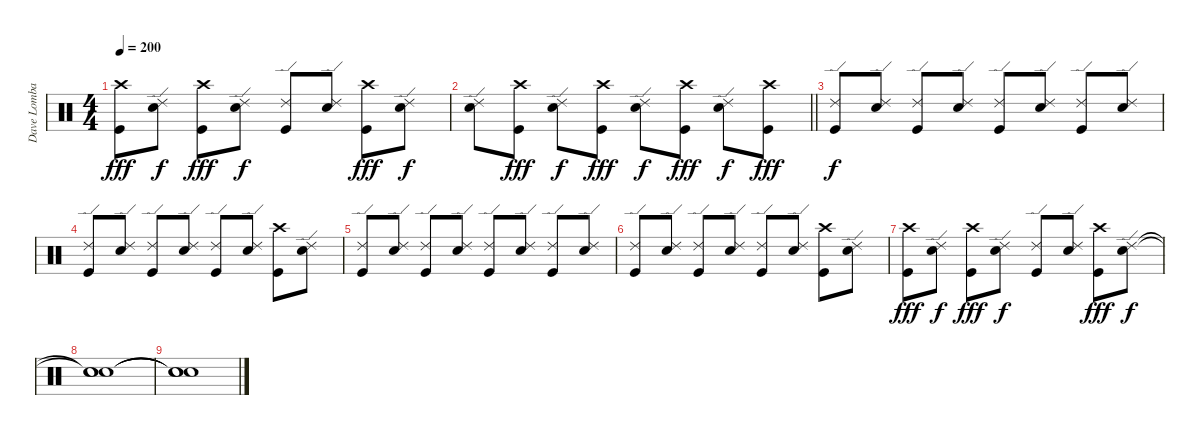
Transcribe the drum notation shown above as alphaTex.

\track ("Dave Lombardo:" "Dave Lomba") {instrument percussion}
\staff {score}
\articulation defaults
\ts (4 4)
\tempo 200
\clef neutral
\ks c
("Crash high (hit)" "Kick (hit)").8{dy fff} ("Ride (edge) 2" "Snare (hit) 2").8{dy f} ("Crash high (hit)" "Kick (hit)").8{dy fff} ("Ride (edge) 2" "Snare (hit) 2").8{dy f} ("Ride (edge) 2" "Kick (hit)").8 ("Ride (edge) 2" "Snare (hit) 2").8 ("Crash high (hit)" "Kick (hit)").8{dy fff} ("Ride (edge) 2" "Snare (hit) 2").8{dy f} |
\barLineRight lightlight
("Ride (edge) 2" "Snare (hit) 2").8 ("Crash high (hit)" "Kick (hit)").8{dy fff} ("Ride (edge) 2" "Snare (hit) 2").8{dy f} ("Crash high (hit)" "Kick (hit)").8{dy fff} ("Ride (edge) 2" "Snare (hit) 2").8{dy f} ("Crash high (hit)" "Kick (hit)").8{dy fff} ("Ride (edge) 2" "Snare (hit) 2").8{dy f} ("Crash high (hit)" "Kick (hit)").8{dy fff} |
\section ("" "")
("Ride (edge) 2" "Kick (hit)").8{dy f} ("Ride (edge) 2" "Snare (hit) 2").8 ("Ride (edge) 2" "Kick (hit)").8 ("Ride (edge) 2" "Snare (hit) 2").8 ("Ride (edge) 2" "Kick (hit)").8 ("Ride (edge) 2" "Snare (hit) 2").8 ("Ride (edge) 2" "Kick (hit)").8 ("Ride (edge) 2" "Snare (hit) 2").8 |
("Ride (edge) 2" "Kick (hit)").8 ("Ride (edge) 2" "Snare (hit) 2").8 ("Ride (edge) 2" "Kick (hit)").8 ("Ride (edge) 2" "Snare (hit) 2").8 ("Ride (edge) 2" "Kick (hit)").8 ("Ride (edge) 2" "Snare (hit) 2").8 ("Crash high (hit)" "Kick (hit)").8 ("Ride (edge) 2" "Snare (hit) 2").8 |
("Ride (edge) 2" "Kick (hit)").8 ("Ride (edge) 2" "Snare (hit) 2").8 ("Ride (edge) 2" "Kick (hit)").8 ("Ride (edge) 2" "Snare (hit) 2").8 ("Ride (edge) 2" "Kick (hit)").8 ("Ride (edge) 2" "Snare (hit) 2").8 ("Ride (edge) 2" "Kick (hit)").8 ("Ride (edge) 2" "Snare (hit) 2").8 |
("Ride (edge) 2" "Kick (hit)").8 ("Ride (edge) 2" "Snare (hit) 2").8 ("Ride (edge) 2" "Kick (hit)").8 ("Ride (edge) 2" "Snare (hit) 2").8 ("Ride (edge) 2" "Kick (hit)").8 ("Ride (edge) 2" "Snare (hit) 2").8 ("Crash high (hit)" "Kick (hit)").8 ("Ride (edge) 2" "Snare (hit) 2").8 |
("Crash high (hit)" "Kick (hit)").8{dy fff} ("Ride (edge) 2" "Snare (hit) 2").8{dy f} ("Crash high (hit)" "Kick (hit)").8{dy fff} ("Ride (edge) 2" "Snare (hit) 2").8{dy f} ("Ride (edge) 2" "Kick (hit)").8 ("Ride (edge) 2" "Snare (hit) 2").8 ("Crash high (hit)" "Kick (hit)").8{dy fff} ("Ride (edge) 2" "Snare (hit) 2").8{dy f} |
("Snare (hit)"{t} "Snare (hit)"{t} "Snare (hit)").1 |
("Snare (hit)"{t} "Snare (hit)"{t} "Snare (hit)"{t}).1
